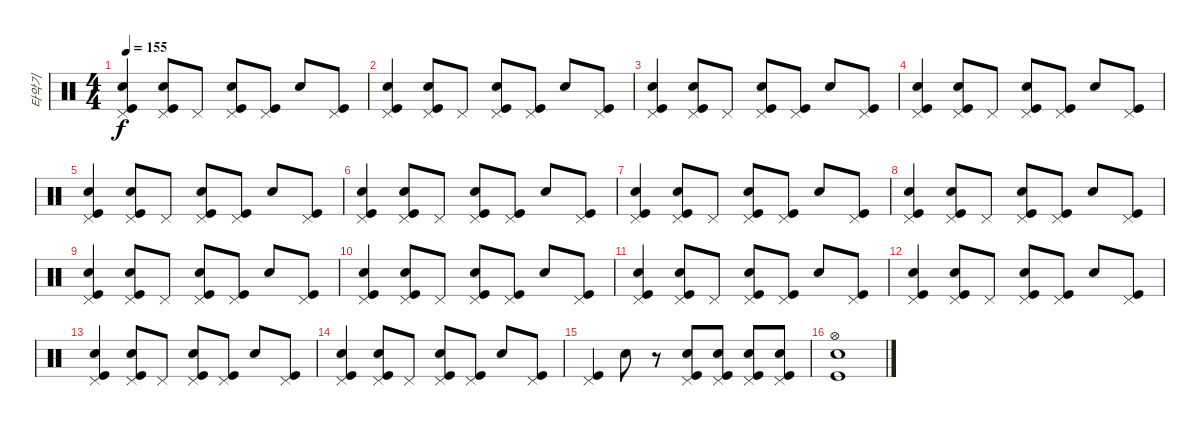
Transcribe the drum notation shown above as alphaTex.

\track ("타악기" "타악기") {instrument percussion}
\staff {score}
\articulation defaults
\ts (4 4)
\tempo 155
\clef neutral
\ks c
("Pedal Hi-Hat (hit)" "Snare (hit) 2" "Kick (hit)").4{dy f} ("Pedal Hi-Hat (hit)" "Electric Snare (hit)" "Kick (hit)").8 "Pedal Hi-Hat (hit)".8 ("Pedal Hi-Hat (hit)" "Snare (hit) 2" "Kick (hit)").8 ("Pedal Hi-Hat (hit)" "Kick (hit)").8 "Electric Snare (hit)".8 ("Pedal Hi-Hat (hit)" "Kick (hit)").8 |
("Pedal Hi-Hat (hit)" "Snare (hit) 2" "Kick (hit)").4 ("Pedal Hi-Hat (hit)" "Electric Snare (hit)" "Kick (hit)").8 "Pedal Hi-Hat (hit)".8 ("Pedal Hi-Hat (hit)" "Snare (hit) 2" "Kick (hit)").8 ("Pedal Hi-Hat (hit)" "Kick (hit)").8 "Electric Snare (hit)".8 ("Pedal Hi-Hat (hit)" "Kick (hit)").8 |
("Pedal Hi-Hat (hit)" "Snare (hit) 2" "Kick (hit)").4 ("Pedal Hi-Hat (hit)" "Electric Snare (hit)" "Kick (hit)").8 "Pedal Hi-Hat (hit)".8 ("Pedal Hi-Hat (hit)" "Snare (hit) 2" "Kick (hit)").8 ("Pedal Hi-Hat (hit)" "Kick (hit)").8 "Electric Snare (hit)".8 ("Pedal Hi-Hat (hit)" "Kick (hit)").8 |
("Pedal Hi-Hat (hit)" "Snare (hit) 2" "Kick (hit)").4 ("Pedal Hi-Hat (hit)" "Electric Snare (hit)" "Kick (hit)").8 "Pedal Hi-Hat (hit)".8 ("Pedal Hi-Hat (hit)" "Snare (hit) 2" "Kick (hit)").8 ("Pedal Hi-Hat (hit)" "Kick (hit)").8 "Electric Snare (hit)".8 ("Pedal Hi-Hat (hit)" "Kick (hit)").8 |
("Pedal Hi-Hat (hit)" "Snare (hit) 2" "Kick (hit)").4 ("Pedal Hi-Hat (hit)" "Electric Snare (hit)" "Kick (hit)").8 "Pedal Hi-Hat (hit)".8 ("Pedal Hi-Hat (hit)" "Snare (hit) 2" "Kick (hit)").8 ("Pedal Hi-Hat (hit)" "Kick (hit)").8 "Electric Snare (hit)".8 ("Pedal Hi-Hat (hit)" "Kick (hit)").8 |
("Pedal Hi-Hat (hit)" "Snare (hit) 2" "Kick (hit)").4 ("Pedal Hi-Hat (hit)" "Electric Snare (hit)" "Kick (hit)").8 "Pedal Hi-Hat (hit)".8 ("Pedal Hi-Hat (hit)" "Snare (hit) 2" "Kick (hit)").8 ("Pedal Hi-Hat (hit)" "Kick (hit)").8 "Electric Snare (hit)".8 ("Pedal Hi-Hat (hit)" "Kick (hit)").8 |
("Pedal Hi-Hat (hit)" "Snare (hit) 2" "Kick (hit)").4 ("Pedal Hi-Hat (hit)" "Electric Snare (hit)" "Kick (hit)").8 "Pedal Hi-Hat (hit)".8 ("Pedal Hi-Hat (hit)" "Snare (hit) 2" "Kick (hit)").8 ("Pedal Hi-Hat (hit)" "Kick (hit)").8 "Electric Snare (hit)".8 ("Pedal Hi-Hat (hit)" "Kick (hit)").8 |
("Pedal Hi-Hat (hit)" "Snare (hit) 2" "Kick (hit)").4 ("Pedal Hi-Hat (hit)" "Electric Snare (hit)" "Kick (hit)").8 "Pedal Hi-Hat (hit)".8 ("Pedal Hi-Hat (hit)" "Snare (hit) 2" "Kick (hit)").8 ("Pedal Hi-Hat (hit)" "Kick (hit)").8 "Electric Snare (hit)".8 ("Pedal Hi-Hat (hit)" "Kick (hit)").8 |
("Pedal Hi-Hat (hit)" "Snare (hit) 2" "Kick (hit)").4 ("Pedal Hi-Hat (hit)" "Electric Snare (hit)" "Kick (hit)").8 "Pedal Hi-Hat (hit)".8 ("Pedal Hi-Hat (hit)" "Snare (hit) 2" "Kick (hit)").8 ("Pedal Hi-Hat (hit)" "Kick (hit)").8 "Electric Snare (hit)".8 ("Pedal Hi-Hat (hit)" "Kick (hit)").8 |
("Pedal Hi-Hat (hit)" "Snare (hit) 2" "Kick (hit)").4 ("Pedal Hi-Hat (hit)" "Electric Snare (hit)" "Kick (hit)").8 "Pedal Hi-Hat (hit)".8 ("Pedal Hi-Hat (hit)" "Snare (hit) 2" "Kick (hit)").8 ("Pedal Hi-Hat (hit)" "Kick (hit)").8 "Electric Snare (hit)".8 ("Pedal Hi-Hat (hit)" "Kick (hit)").8 |
("Pedal Hi-Hat (hit)" "Snare (hit) 2" "Kick (hit)").4 ("Pedal Hi-Hat (hit)" "Electric Snare (hit)" "Kick (hit)").8 "Pedal Hi-Hat (hit)".8 ("Pedal Hi-Hat (hit)" "Snare (hit) 2" "Kick (hit)").8 ("Pedal Hi-Hat (hit)" "Kick (hit)").8 "Electric Snare (hit)".8 ("Pedal Hi-Hat (hit)" "Kick (hit)").8 |
("Pedal Hi-Hat (hit)" "Snare (hit) 2" "Kick (hit)").4 ("Pedal Hi-Hat (hit)" "Electric Snare (hit)" "Kick (hit)").8 "Pedal Hi-Hat (hit)".8 ("Pedal Hi-Hat (hit)" "Snare (hit) 2" "Kick (hit)").8 ("Pedal Hi-Hat (hit)" "Kick (hit)").8 "Electric Snare (hit)".8 ("Pedal Hi-Hat (hit)" "Kick (hit)").8 |
("Pedal Hi-Hat (hit)" "Snare (hit) 2" "Kick (hit)").4 ("Pedal Hi-Hat (hit)" "Electric Snare (hit)" "Kick (hit)").8 "Pedal Hi-Hat (hit)".8 ("Pedal Hi-Hat (hit)" "Snare (hit) 2" "Kick (hit)").8 ("Pedal Hi-Hat (hit)" "Kick (hit)").8 "Electric Snare (hit)".8 ("Pedal Hi-Hat (hit)" "Kick (hit)").8 |
("Pedal Hi-Hat (hit)" "Snare (hit) 2" "Kick (hit)").4 ("Pedal Hi-Hat (hit)" "Electric Snare (hit)" "Kick (hit)").8 "Pedal Hi-Hat (hit)".8 ("Pedal Hi-Hat (hit)" "Snare (hit) 2" "Kick (hit)").8 ("Pedal Hi-Hat (hit)" "Kick (hit)").8 "Electric Snare (hit)".8 ("Pedal Hi-Hat (hit)" "Kick (hit)").8 |
("Pedal Hi-Hat (hit)" "Kick (hit)").4 "Electric Snare (hit)".8 r.8 ("Pedal Hi-Hat (hit)" "Electric Snare (hit)" "Kick (hit)").8 ("Pedal Hi-Hat (hit)" "Electric Snare (hit)" "Kick (hit)").8 ("Pedal Hi-Hat (hit)" "Electric Snare (hit)" "Kick (hit)").8 ("Pedal Hi-Hat (hit)" "Electric Snare (hit)" "Kick (hit)").8 |
("Hi-Hat (open)" "Snare (hit) 2" "Kick (hit)").1
